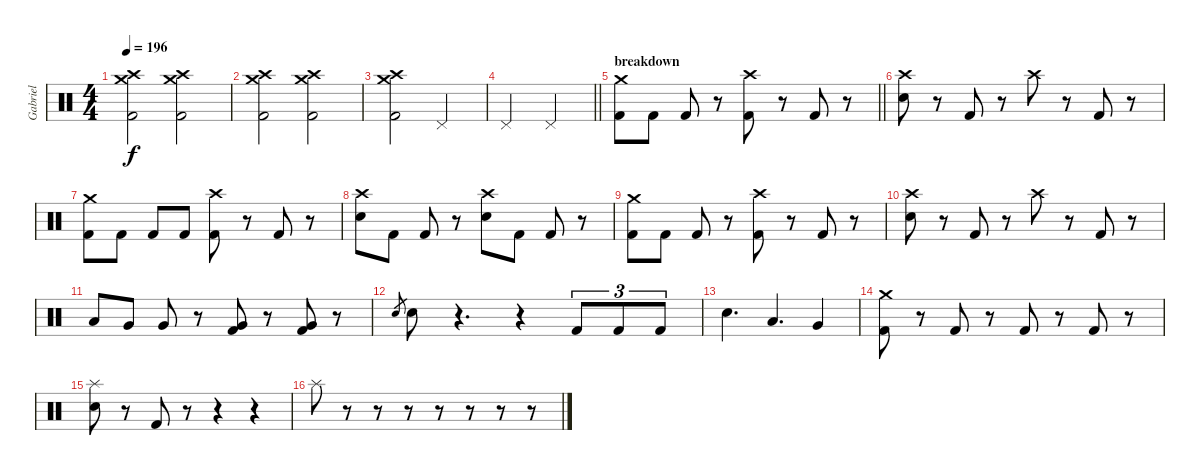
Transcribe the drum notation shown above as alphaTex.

\track ("Gabriel" "Gabriel") {instrument percussion}
\staff {score}
\articulation defaults
\ts (4 4)
\tempo 196
\clef neutral
\ks c
("Crash high (hit)" "Crash medium (hit)" "Kick (hit) 2").2{dy f} ("Crash high (hit)" "Crash medium (hit)" "Kick (hit) 2").2 |
("Crash high (hit)" "Crash medium (hit)" "Kick (hit) 2").2 ("Crash high (hit)" "Crash medium (hit)" "Kick (hit) 2").2 |
("Crash high (hit)" "Crash medium (hit)" "Kick (hit) 2").2 "Pedal Hi-Hat (hit)".2 |
\barLineRight lightlight "Pedal Hi-Hat (hit)".2 "Pedal Hi-Hat (hit)".2
|
\section ("" "breakdown")
\barLineRight lightlight
("Crash medium (hit)" "Kick (hit) 2").8 "Kick (hit) 2".8 "Kick (hit) 2".8 r.8 ("Crash high (hit)" "Kick (hit) 2").8 r.8 "Kick (hit) 2".8 r.8 |
("Crash high (hit)" "Electric Snare (hit)").8 r.8 "Kick (hit) 2".8 r.8 "Crash high (hit)".8 r.8 "Kick (hit) 2".8 r.8 |
("Crash medium (hit)" "Kick (hit) 2").8 "Kick (hit) 2".8 "Kick (hit) 2".8 "Kick (hit) 2".8 ("Crash high (hit)" "Kick (hit) 2").8 r.8 "Kick (hit) 2".8 r.8 |
("Crash high (hit)" "Electric Snare (hit)").8 "Kick (hit) 2".8 "Kick (hit) 2".8 r.8 ("Crash high (hit)" "Electric Snare (hit)").8 "Kick (hit) 2".8 "Kick (hit) 2".8 r.8 |
("Crash medium (hit)" "Kick (hit) 2").8 "Kick (hit) 2".8 "Kick (hit) 2".8 r.8 ("Crash high (hit)" "Kick (hit) 2").8 r.8 "Kick (hit) 2".8 r.8 |
("Crash high (hit)" "Electric Snare (hit)").8 r.8 "Kick (hit) 2".8 r.8 "Crash high (hit)".8 r.8 "Kick (hit) 2".8 r.8 |
"Low Tom (hit)".8 "Very Low Tom (hit)".8 "Very Low Tom (hit)".8 r.8 ("Very Low Tom (hit)" "Kick (hit) 2").8 r.8 ("Very Low Tom (hit)" "Kick (hit) 2").8 r.8 |
"Electric Snare (hit)".8{gr} "Electric Snare (hit)".8 r.4{d} r.4 "Kick (hit) 2".8{tu (3 2)} "Kick (hit) 2".8{tu (3 2)} "Kick (hit) 2".8{tu (3 2)} |
"Electric Snare (hit)".4{d} "Low Tom (hit)".4{d} "Very Low Tom (hit)".4 |
("Crash medium (hit)" "Kick (hit) 2").8 r.8 "Kick (hit) 2".8 r.8 "Kick (hit) 2".8 r.8 "Kick (hit) 2".8 r.8 |
("Splash (hit)" "Electric Snare (hit)").8 r.8 "Kick (hit) 2".8 r.8 r.4 r.4 |
"Splash (hit)".8 r.8 r.8 r.8 r.8 r.8 r.8 r.8
